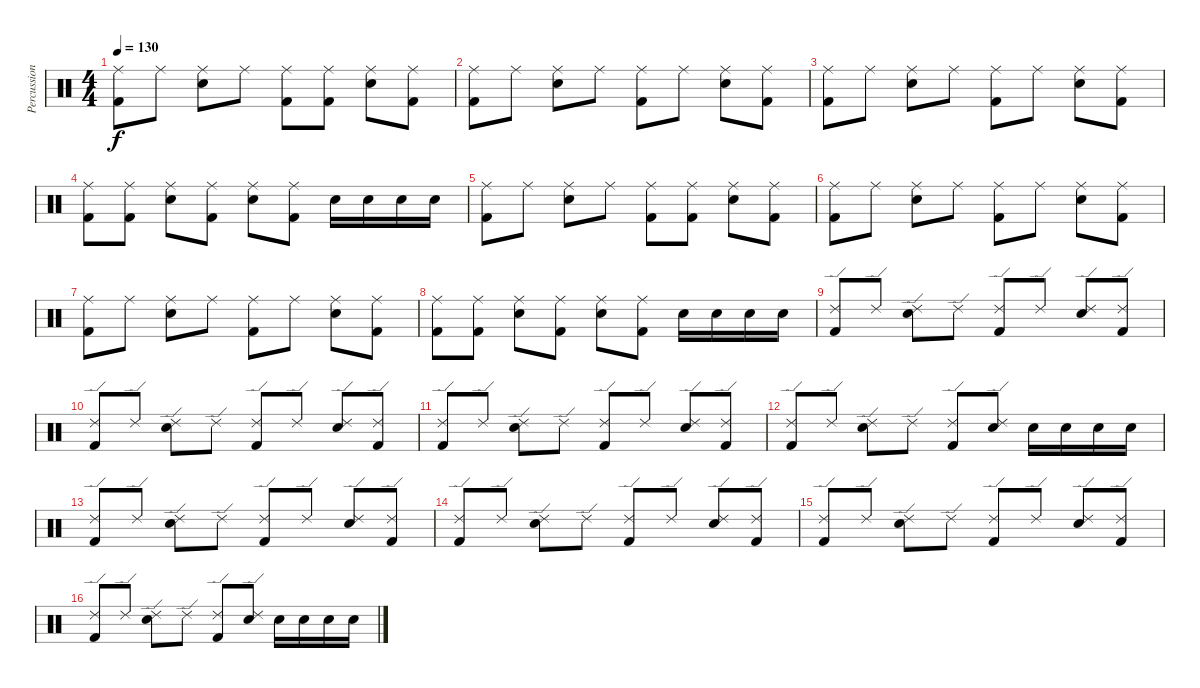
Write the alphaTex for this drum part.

\track ("Percussion" "Percussion") {instrument percussion}
\staff {score}
\articulation defaults
\ts (4 4)
\tempo 130
\clef neutral
\ks c
("Kick (hit) 2" "Ride (middle)").8{dy f} "Ride (middle)".8 ("Snare (hit) 2" "Ride (middle)").8 "Ride (middle)".8 ("Kick (hit) 2" "Ride (middle)").8 ("Kick (hit) 2" "Ride (middle)").8 ("Snare (hit) 2" "Ride (middle)").8 ("Kick (hit) 2" "Ride (middle)").8 |
("Kick (hit) 2" "Ride (middle)").8 "Ride (middle)".8 ("Snare (hit) 2" "Ride (middle)").8 "Ride (middle)".8 ("Kick (hit) 2" "Ride (middle)").8 "Ride (middle)".8 ("Snare (hit) 2" "Ride (middle)").8 ("Kick (hit) 2" "Ride (middle)").8 |
("Kick (hit) 2" "Ride (middle)").8 "Ride (middle)".8 ("Snare (hit) 2" "Ride (middle)").8 "Ride (middle)".8 ("Kick (hit) 2" "Ride (middle)").8 "Ride (middle)".8 ("Snare (hit) 2" "Ride (middle)").8 ("Kick (hit) 2" "Ride (middle)").8 |
("Kick (hit) 2" "Ride (middle)").8 ("Kick (hit) 2" "Ride (middle)").8 ("Snare (hit) 2" "Ride (middle)").8 ("Kick (hit) 2" "Ride (middle)").8 ("Snare (hit) 2" "Ride (middle)").8 ("Kick (hit) 2" "Ride (middle)").8 "Snare (hit) 2".16 "Snare (hit) 2".16 "Snare (hit) 2".16 "Snare (hit) 2".16 |
("Kick (hit) 2" "Ride (middle)").8 "Ride (middle)".8 ("Snare (hit) 2" "Ride (middle)").8 "Ride (middle)".8 ("Kick (hit) 2" "Ride (middle)").8 ("Kick (hit) 2" "Ride (middle)").8 ("Snare (hit) 2" "Ride (middle)").8 ("Kick (hit) 2" "Ride (middle)").8 |
("Kick (hit) 2" "Ride (middle)").8 "Ride (middle)".8 ("Snare (hit) 2" "Ride (middle)").8 "Ride (middle)".8 ("Kick (hit) 2" "Ride (middle)").8 "Ride (middle)".8 ("Snare (hit) 2" "Ride (middle)").8 ("Kick (hit) 2" "Ride (middle)").8 |
("Kick (hit) 2" "Ride (middle)").8 "Ride (middle)".8 ("Snare (hit) 2" "Ride (middle)").8 "Ride (middle)".8 ("Kick (hit) 2" "Ride (middle)").8 "Ride (middle)".8 ("Snare (hit) 2" "Ride (middle)").8 ("Kick (hit) 2" "Ride (middle)").8 |
("Kick (hit) 2" "Ride (middle)").8 ("Kick (hit) 2" "Ride (middle)").8 ("Snare (hit) 2" "Ride (middle)").8 ("Kick (hit) 2" "Ride (middle)").8 ("Snare (hit) 2" "Ride (middle)").8 ("Kick (hit) 2" "Ride (middle)").8 "Snare (hit) 2".16 "Snare (hit) 2".16 "Snare (hit) 2".16 "Snare (hit) 2".16 |
("Kick (hit) 2" "Ride (edge) 2").8 "Ride (edge) 2".8 ("Snare (hit) 2" "Ride (edge) 2").8 "Ride (edge) 2".8 ("Kick (hit) 2" "Ride (edge) 2").8 "Ride (edge) 2".8 ("Snare (hit) 2" "Ride (edge) 2").8 ("Kick (hit) 2" "Ride (edge) 2").8 |
("Kick (hit) 2" "Ride (edge) 2").8 "Ride (edge) 2".8 ("Snare (hit) 2" "Ride (edge) 2").8 "Ride (edge) 2".8 ("Kick (hit) 2" "Ride (edge) 2").8 "Ride (edge) 2".8 ("Snare (hit) 2" "Ride (edge) 2").8 ("Kick (hit) 2" "Ride (edge) 2").8 |
("Kick (hit) 2" "Ride (edge) 2").8 "Ride (edge) 2".8 ("Snare (hit) 2" "Ride (edge) 2").8 "Ride (edge) 2".8 ("Kick (hit) 2" "Ride (edge) 2").8 "Ride (edge) 2".8 ("Snare (hit) 2" "Ride (edge) 2").8 ("Kick (hit) 2" "Ride (edge) 2").8 |
("Kick (hit) 2" "Ride (edge) 2").8 "Ride (edge) 2".8 ("Snare (hit) 2" "Ride (edge) 2").8 "Ride (edge) 2".8 ("Kick (hit) 2" "Ride (edge) 2").8 ("Snare (hit) 2" "Ride (edge) 2").8 "Snare (hit) 2".16 "Snare (hit) 2".16 "Snare (hit) 2".16 "Snare (hit) 2".16 |
("Kick (hit) 2" "Ride (edge) 2").8 "Ride (edge) 2".8 ("Snare (hit) 2" "Ride (edge) 2").8 "Ride (edge) 2".8 ("Kick (hit) 2" "Ride (edge) 2").8 "Ride (edge) 2".8 ("Snare (hit) 2" "Ride (edge) 2").8 ("Kick (hit) 2" "Ride (edge) 2").8 |
("Kick (hit) 2" "Ride (edge) 2").8 "Ride (edge) 2".8 ("Snare (hit) 2" "Ride (edge) 2").8 "Ride (edge) 2".8 ("Kick (hit) 2" "Ride (edge) 2").8 "Ride (edge) 2".8 ("Snare (hit) 2" "Ride (edge) 2").8 ("Kick (hit) 2" "Ride (edge) 2").8 |
("Kick (hit) 2" "Ride (edge) 2").8 "Ride (edge) 2".8 ("Snare (hit) 2" "Ride (edge) 2").8 "Ride (edge) 2".8 ("Kick (hit) 2" "Ride (edge) 2").8 "Ride (edge) 2".8 ("Snare (hit) 2" "Ride (edge) 2").8 ("Kick (hit) 2" "Ride (edge) 2").8 |
("Kick (hit) 2" "Ride (edge) 2").8 "Ride (edge) 2".8 ("Snare (hit) 2" "Ride (edge) 2").8 "Ride (edge) 2".8 ("Kick (hit) 2" "Ride (edge) 2").8 ("Snare (hit) 2" "Ride (edge) 2").8 "Snare (hit) 2".16 "Snare (hit) 2".16 "Snare (hit) 2".16 "Snare (hit) 2".16
